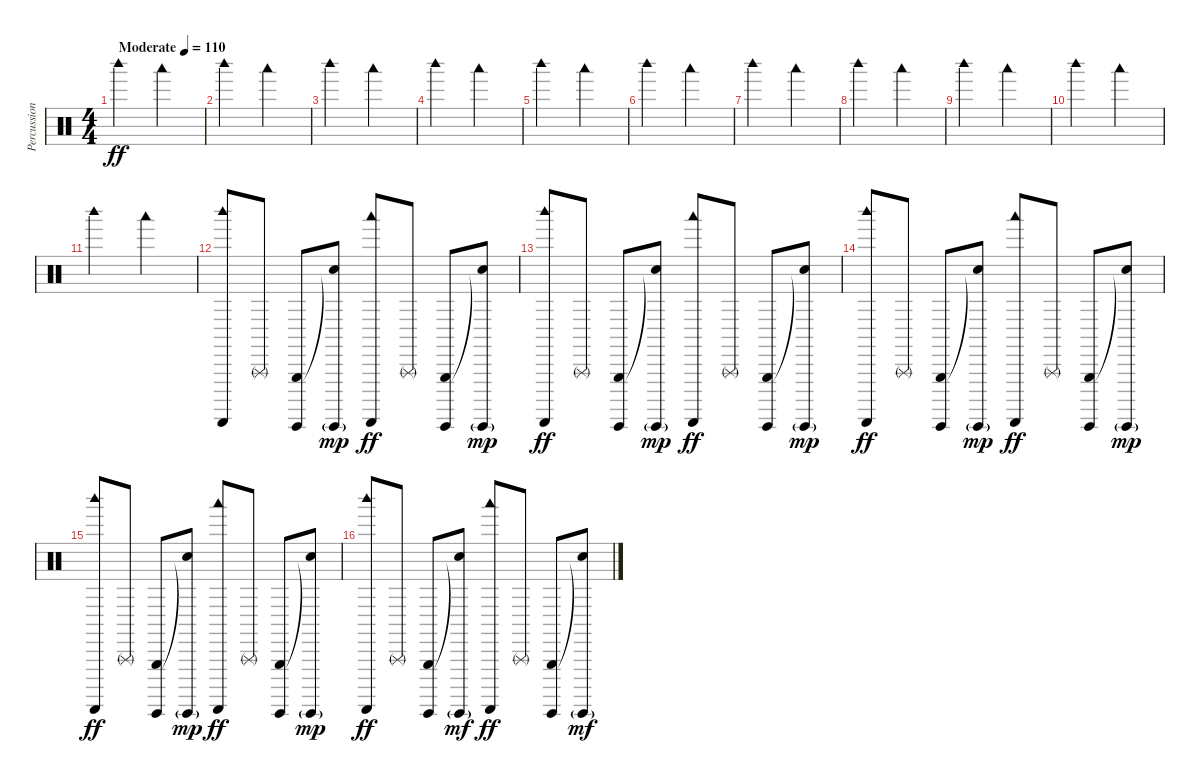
\track ("Percussion" "Percussion") {instrument percussion}
\staff {score}
\articulation defaults
\ts (4 4)
\tempo (110 "Moderate")
\clef neutral
\ks c "Woodblock high (hit)".2{dy ff} "Woodblock low (hit)".2
|
"Woodblock high (hit)".2 "Woodblock low (hit)".2 |
"Woodblock high (hit)".2 "Woodblock low (hit)".2 |
"Woodblock high (hit)".2 "Woodblock low (hit)".2 |
"Woodblock high (hit)".2 "Woodblock low (hit)".2 |
"Woodblock high (hit)".2 "Woodblock low (hit)".2 |
"Woodblock high (hit)".2 "Woodblock low (hit)".2 |
"Woodblock high (hit)".2 "Woodblock low (hit)".2 |
"Woodblock high (hit)".2 "Woodblock low (hit)".2 |
"Woodblock high (hit)".2 "Woodblock low (hit)".2 |
"Woodblock high (hit)".2 "Woodblock low (hit)".2 |
("Woodblock high (hit)" "Guiro (scrap-return)").8 "Triangle (rnute)".8 ("Triangle (hit)" "Guiro (hit)").8 ("Snare (hit)"{t} "Guiro (hit)"{g}).8{dy mp} ("Woodblock low (hit)" "Guiro (scrap-return)").8{dy ff} "Triangle (rnute)".8 ("Triangle (hit)" "Guiro (hit)").8 ("Snare (hit)"{t} "Guiro (hit)"{g}).8{dy mp} |
("Woodblock high (hit)" "Guiro (scrap-return)").8{dy ff} "Triangle (rnute)".8 ("Triangle (hit)" "Guiro (hit)").8 ("Snare (hit)"{t} "Guiro (hit)"{g}).8{dy mp} ("Woodblock low (hit)" "Guiro (scrap-return)").8{dy ff} "Triangle (rnute)".8 ("Triangle (hit)" "Guiro (hit)").8 ("Snare (hit)"{t} "Guiro (hit)"{g}).8{dy mp} |
("Woodblock high (hit)" "Guiro (scrap-return)").8{dy ff} "Triangle (rnute)".8 ("Triangle (hit)" "Guiro (hit)").8 ("Snare (hit)"{t} "Guiro (hit)"{g}).8{dy mp} ("Woodblock low (hit)" "Guiro (scrap-return)").8{dy ff} "Triangle (rnute)".8 ("Triangle (hit)" "Guiro (hit)").8 ("Snare (hit)"{t} "Guiro (hit)"{g}).8{dy mp} |
("Woodblock high (hit)" "Guiro (scrap-return)").8{dy ff} "Triangle (rnute)".8 ("Triangle (hit)" "Guiro (hit)").8 ("Snare (hit)"{t} "Guiro (hit)"{g}).8{dy mp} ("Woodblock low (hit)" "Guiro (scrap-return)").8{dy ff} "Triangle (rnute)".8 ("Triangle (hit)" "Guiro (hit)").8 ("Snare (hit)"{t} "Guiro (hit)"{g}).8{dy mp} |
("Woodblock high (hit)" "Guiro (scrap-return)").8{dy ff} "Triangle (rnute)".8 ("Triangle (hit)" "Guiro (hit)").8 ("Snare (hit)"{t} "Guiro (hit)"{g}).8{dy mf} ("Woodblock low (hit)" "Guiro (scrap-return)").8{dy ff} "Triangle (rnute)".8 ("Triangle (hit)" "Guiro (hit)").8 ("Snare (hit)"{t} "Guiro (hit)"{g}).8{dy mf}
